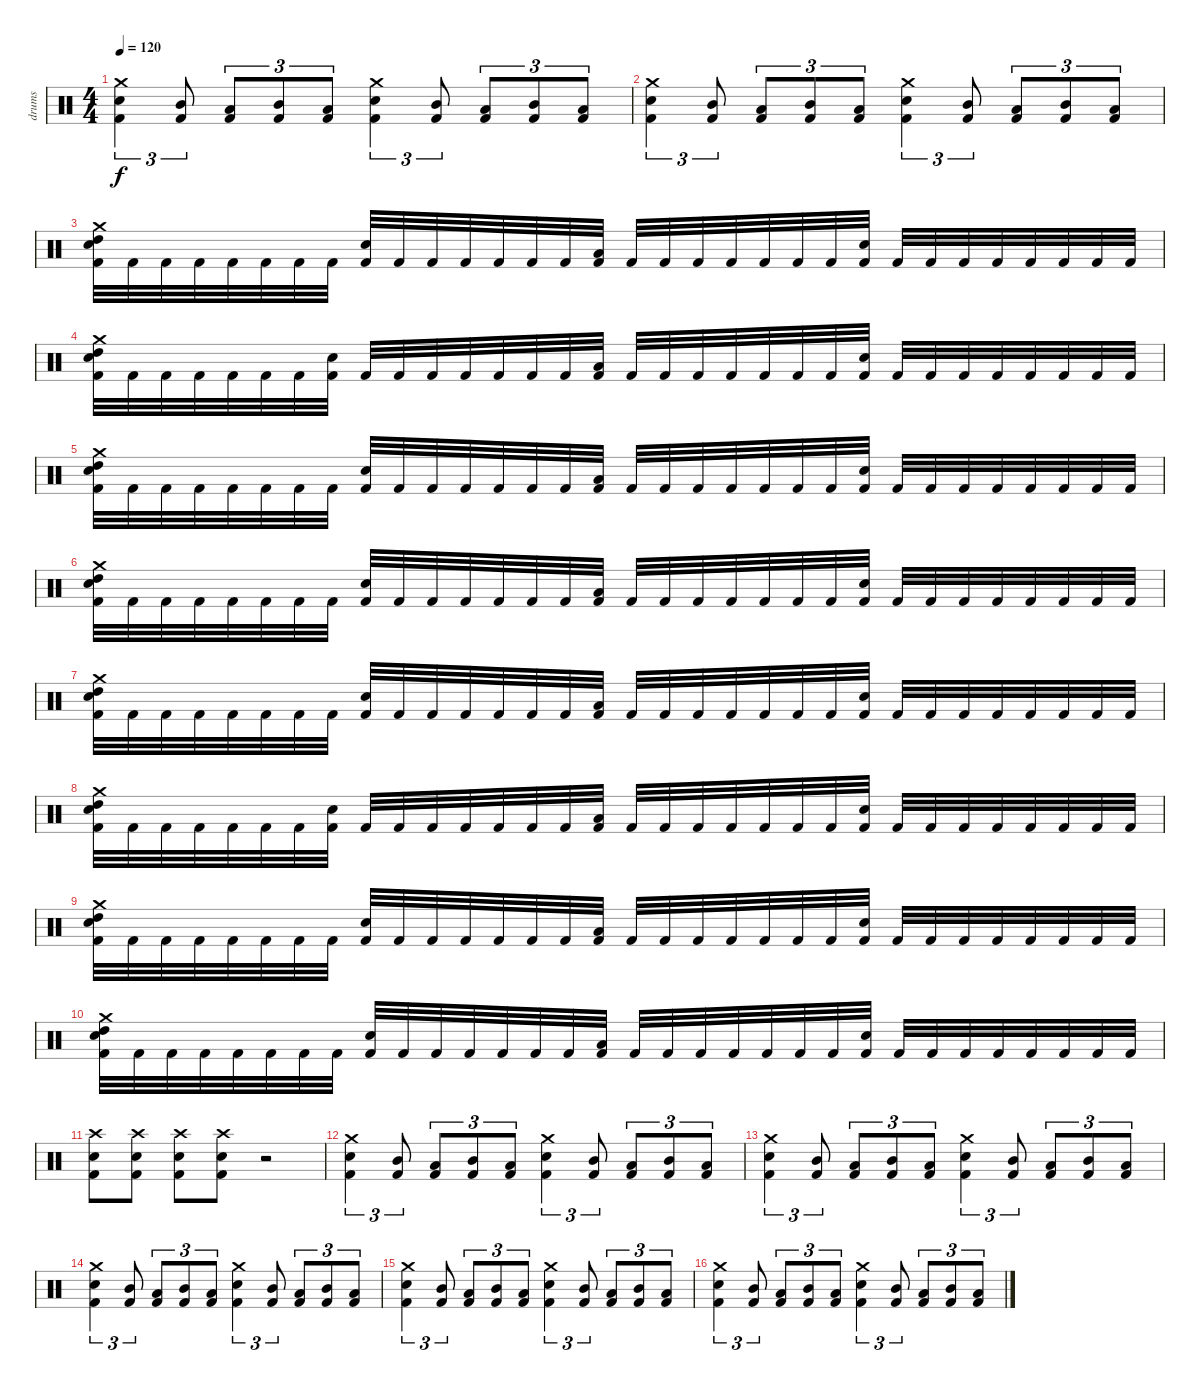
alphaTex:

\track ("drums" "drums") {instrument percussion}
\staff {score}
\articulation defaults
\ts (4 4)
\tempo 120
\clef neutral
\ks c
("Crash medium (hit)" "Electric Snare (hit)" "Kick (hit) 2").4{tu (3 2) dy f} ("Mid Tom (hit)" "Kick (hit) 2").8{tu (3 2)} ("Low Tom (hit)" "Kick (hit) 2").8{tu (3 2)} ("Mid Tom (hit)" "Kick (hit) 2").8{tu (3 2)} ("Low Tom (hit)" "Kick (hit) 2").8{tu (3 2)} ("Crash medium (hit)" "Electric Snare (hit)" "Kick (hit) 2").4{tu (3 2)} ("Mid Tom (hit)" "Kick (hit) 2").8{tu (3 2)} ("Low Tom (hit)" "Kick (hit) 2").8{tu (3 2)} ("Mid Tom (hit)" "Kick (hit) 2").8{tu (3 2)} ("Low Tom (hit)" "Kick (hit) 2").8{tu (3 2)} |
("Crash medium (hit)" "Electric Snare (hit)" "Kick (hit) 2").4{tu (3 2)} ("Mid Tom (hit)" "Kick (hit) 2").8{tu (3 2)} ("Low Tom (hit)" "Kick (hit) 2").8{tu (3 2)} ("Mid Tom (hit)" "Kick (hit) 2").8{tu (3 2)} ("Low Tom (hit)" "Kick (hit) 2").8{tu (3 2)} ("Crash medium (hit)" "Electric Snare (hit)" "Kick (hit) 2").4{tu (3 2)} ("Mid Tom (hit)" "Kick (hit) 2").8{tu (3 2)} ("Low Tom (hit)" "Kick (hit) 2").8{tu (3 2)} ("Mid Tom (hit)" "Kick (hit) 2").8{tu (3 2)} ("Low Tom (hit)" "Kick (hit) 2").8{tu (3 2)} |
("High Tom (hit)" "Electric Snare (hit)" "Crash medium (hit)" "Kick (hit) 2").32 "Kick (hit) 2".32 "Kick (hit) 2".32 "Kick (hit) 2".32 "Kick (hit) 2".32 "Kick (hit) 2".32 "Kick (hit) 2".32 "Kick (hit) 2".32 ("Electric Snare (hit)" "Kick (hit) 2").32 "Kick (hit) 2".32 "Kick (hit) 2".32 "Kick (hit) 2".32 "Kick (hit) 2".32 "Kick (hit) 2".32 "Kick (hit) 2".32 ("Low Floor Tom (hit)" "Kick (hit) 2").32 "Kick (hit) 2".32 "Kick (hit) 2".32 "Kick (hit) 2".32 "Kick (hit) 2".32 "Kick (hit) 2".32 "Kick (hit) 2".32 "Kick (hit) 2".32 ("Electric Snare (hit)" "Kick (hit) 2").32 "Kick (hit) 2".32 "Kick (hit) 2".32 "Kick (hit) 2".32 "Kick (hit) 2".32 "Kick (hit) 2".32 "Kick (hit) 2".32 "Kick (hit) 2".32 "Kick (hit) 2".32 |
("Crash medium (hit)" "Electric Snare (hit)" "High Tom (hit)" "Kick (hit) 2").32 "Kick (hit) 2".32 "Kick (hit) 2".32 "Kick (hit) 2".32 "Kick (hit) 2".32 "Kick (hit) 2".32 "Kick (hit) 2".32 ("Electric Snare (hit)" "Kick (hit) 2").32 "Kick (hit) 2".32 "Kick (hit) 2".32 "Kick (hit) 2".32 "Kick (hit) 2".32 "Kick (hit) 2".32 "Kick (hit) 2".32 "Kick (hit) 2".32 ("Low Floor Tom (hit)" "Kick (hit) 2").32 "Kick (hit) 2".32 "Kick (hit) 2".32 "Kick (hit) 2".32 "Kick (hit) 2".32 "Kick (hit) 2".32 "Kick (hit) 2".32 "Kick (hit) 2".32 ("Electric Snare (hit)" "Kick (hit) 2").32 "Kick (hit) 2".32 "Kick (hit) 2".32 "Kick (hit) 2".32 "Kick (hit) 2".32 "Kick (hit) 2".32 "Kick (hit) 2".32 "Kick (hit) 2".32 "Kick (hit) 2".32 |
("Crash medium (hit)" "Electric Snare (hit)" "High Tom (hit)" "Kick (hit) 2").32 "Kick (hit) 2".32 "Kick (hit) 2".32 "Kick (hit) 2".32 "Kick (hit) 2".32 "Kick (hit) 2".32 "Kick (hit) 2".32 "Kick (hit) 2".32 ("Electric Snare (hit)" "Kick (hit) 2").32 "Kick (hit) 2".32 "Kick (hit) 2".32 "Kick (hit) 2".32 "Kick (hit) 2".32 "Kick (hit) 2".32 "Kick (hit) 2".32 ("Low Floor Tom (hit)" "Kick (hit) 2").32 "Kick (hit) 2".32 "Kick (hit) 2".32 "Kick (hit) 2".32 "Kick (hit) 2".32 "Kick (hit) 2".32 "Kick (hit) 2".32 "Kick (hit) 2".32 ("Electric Snare (hit)" "Kick (hit) 2").32 "Kick (hit) 2".32 "Kick (hit) 2".32 "Kick (hit) 2".32 "Kick (hit) 2".32 "Kick (hit) 2".32 "Kick (hit) 2".32 "Kick (hit) 2".32 "Kick (hit) 2".32 |
("Crash medium (hit)" "Electric Snare (hit)" "High Tom (hit)" "Kick (hit) 2").32 "Kick (hit) 2".32 "Kick (hit) 2".32 "Kick (hit) 2".32 "Kick (hit) 2".32 "Kick (hit) 2".32 "Kick (hit) 2".32 "Kick (hit) 2".32 ("Electric Snare (hit)" "Kick (hit) 2").32 "Kick (hit) 2".32 "Kick (hit) 2".32 "Kick (hit) 2".32 "Kick (hit) 2".32 "Kick (hit) 2".32 "Kick (hit) 2".32 ("Low Floor Tom (hit)" "Kick (hit) 2").32 "Kick (hit) 2".32 "Kick (hit) 2".32 "Kick (hit) 2".32 "Kick (hit) 2".32 "Kick (hit) 2".32 "Kick (hit) 2".32 "Kick (hit) 2".32 ("Electric Snare (hit)" "Kick (hit) 2").32 "Kick (hit) 2".32 "Kick (hit) 2".32 "Kick (hit) 2".32 "Kick (hit) 2".32 "Kick (hit) 2".32 "Kick (hit) 2".32 "Kick (hit) 2".32 "Kick (hit) 2".32 |
("High Tom (hit)" "Electric Snare (hit)" "Crash medium (hit)" "Kick (hit) 2").32 "Kick (hit) 2".32 "Kick (hit) 2".32 "Kick (hit) 2".32 "Kick (hit) 2".32 "Kick (hit) 2".32 "Kick (hit) 2".32 "Kick (hit) 2".32 ("Electric Snare (hit)" "Kick (hit) 2").32 "Kick (hit) 2".32 "Kick (hit) 2".32 "Kick (hit) 2".32 "Kick (hit) 2".32 "Kick (hit) 2".32 "Kick (hit) 2".32 ("Low Floor Tom (hit)" "Kick (hit) 2").32 "Kick (hit) 2".32 "Kick (hit) 2".32 "Kick (hit) 2".32 "Kick (hit) 2".32 "Kick (hit) 2".32 "Kick (hit) 2".32 "Kick (hit) 2".32 ("Electric Snare (hit)" "Kick (hit) 2").32 "Kick (hit) 2".32 "Kick (hit) 2".32 "Kick (hit) 2".32 "Kick (hit) 2".32 "Kick (hit) 2".32 "Kick (hit) 2".32 "Kick (hit) 2".32 "Kick (hit) 2".32 |
("Crash medium (hit)" "Electric Snare (hit)" "High Tom (hit)" "Kick (hit) 2").32 "Kick (hit) 2".32 "Kick (hit) 2".32 "Kick (hit) 2".32 "Kick (hit) 2".32 "Kick (hit) 2".32 "Kick (hit) 2".32 ("Electric Snare (hit)" "Kick (hit) 2").32 "Kick (hit) 2".32 "Kick (hit) 2".32 "Kick (hit) 2".32 "Kick (hit) 2".32 "Kick (hit) 2".32 "Kick (hit) 2".32 "Kick (hit) 2".32 ("Low Floor Tom (hit)" "Kick (hit) 2").32 "Kick (hit) 2".32 "Kick (hit) 2".32 "Kick (hit) 2".32 "Kick (hit) 2".32 "Kick (hit) 2".32 "Kick (hit) 2".32 "Kick (hit) 2".32 ("Electric Snare (hit)" "Kick (hit) 2").32 "Kick (hit) 2".32 "Kick (hit) 2".32 "Kick (hit) 2".32 "Kick (hit) 2".32 "Kick (hit) 2".32 "Kick (hit) 2".32 "Kick (hit) 2".32 "Kick (hit) 2".32 |
("Crash medium (hit)" "Electric Snare (hit)" "High Tom (hit)" "Kick (hit) 2").32 "Kick (hit) 2".32 "Kick (hit) 2".32 "Kick (hit) 2".32 "Kick (hit) 2".32 "Kick (hit) 2".32 "Kick (hit) 2".32 "Kick (hit) 2".32 ("Electric Snare (hit)" "Kick (hit) 2").32 "Kick (hit) 2".32 "Kick (hit) 2".32 "Kick (hit) 2".32 "Kick (hit) 2".32 "Kick (hit) 2".32 "Kick (hit) 2".32 ("Low Floor Tom (hit)" "Kick (hit) 2").32 "Kick (hit) 2".32 "Kick (hit) 2".32 "Kick (hit) 2".32 "Kick (hit) 2".32 "Kick (hit) 2".32 "Kick (hit) 2".32 "Kick (hit) 2".32 ("Electric Snare (hit)" "Kick (hit) 2").32 "Kick (hit) 2".32 "Kick (hit) 2".32 "Kick (hit) 2".32 "Kick (hit) 2".32 "Kick (hit) 2".32 "Kick (hit) 2".32 "Kick (hit) 2".32 "Kick (hit) 2".32 |
("Crash medium (hit)" "Electric Snare (hit)" "High Tom (hit)" "Kick (hit) 2").32 "Kick (hit) 2".32 "Kick (hit) 2".32 "Kick (hit) 2".32 "Kick (hit) 2".32 "Kick (hit) 2".32 "Kick (hit) 2".32 "Kick (hit) 2".32 ("Electric Snare (hit)" "Kick (hit) 2").32 "Kick (hit) 2".32 "Kick (hit) 2".32 "Kick (hit) 2".32 "Kick (hit) 2".32 "Kick (hit) 2".32 "Kick (hit) 2".32 ("Low Floor Tom (hit)" "Kick (hit) 2").32 "Kick (hit) 2".32 "Kick (hit) 2".32 "Kick (hit) 2".32 "Kick (hit) 2".32 "Kick (hit) 2".32 "Kick (hit) 2".32 "Kick (hit) 2".32 ("Electric Snare (hit)" "Kick (hit) 2").32 "Kick (hit) 2".32 "Kick (hit) 2".32 "Kick (hit) 2".32 "Kick (hit) 2".32 "Kick (hit) 2".32 "Kick (hit) 2".32 "Kick (hit) 2".32 "Kick (hit) 2".32 |
("Crash high (hit)" "Electric Snare (hit)" "Kick (hit) 2").8 ("Crash high (hit)" "Electric Snare (hit)" "Kick (hit) 2").8 ("Crash high (hit)" "Electric Snare (hit)" "Kick (hit) 2").8 ("Crash high (hit)" "Electric Snare (hit)" "Kick (hit) 2").8 r.2 |
("Crash medium (hit)" "Electric Snare (hit)" "Kick (hit) 2").4{tu (3 2)} ("Mid Tom (hit)" "Kick (hit) 2").8{tu (3 2)} ("Low Tom (hit)" "Kick (hit) 2").8{tu (3 2)} ("Mid Tom (hit)" "Kick (hit) 2").8{tu (3 2)} ("Low Tom (hit)" "Kick (hit) 2").8{tu (3 2)} ("Crash medium (hit)" "Electric Snare (hit)" "Kick (hit) 2").4{tu (3 2)} ("Mid Tom (hit)" "Kick (hit) 2").8{tu (3 2)} ("Low Tom (hit)" "Kick (hit) 2").8{tu (3 2)} ("Mid Tom (hit)" "Kick (hit) 2").8{tu (3 2)} ("Low Tom (hit)" "Kick (hit) 2").8{tu (3 2)} |
("Crash medium (hit)" "Electric Snare (hit)" "Kick (hit) 2").4{tu (3 2)} ("Mid Tom (hit)" "Kick (hit) 2").8{tu (3 2)} ("Low Tom (hit)" "Kick (hit) 2").8{tu (3 2)} ("Mid Tom (hit)" "Kick (hit) 2").8{tu (3 2)} ("Low Tom (hit)" "Kick (hit) 2").8{tu (3 2)} ("Crash medium (hit)" "Electric Snare (hit)" "Kick (hit) 2").4{tu (3 2)} ("Mid Tom (hit)" "Kick (hit) 2").8{tu (3 2)} ("Low Tom (hit)" "Kick (hit) 2").8{tu (3 2)} ("Mid Tom (hit)" "Kick (hit) 2").8{tu (3 2)} ("Low Tom (hit)" "Kick (hit) 2").8{tu (3 2)} |
("Crash medium (hit)" "Electric Snare (hit)" "Kick (hit) 2").4{tu (3 2)} ("Mid Tom (hit)" "Kick (hit) 2").8{tu (3 2)} ("Low Tom (hit)" "Kick (hit) 2").8{tu (3 2)} ("Mid Tom (hit)" "Kick (hit) 2").8{tu (3 2)} ("Low Tom (hit)" "Kick (hit) 2").8{tu (3 2)} ("Crash medium (hit)" "Electric Snare (hit)" "Kick (hit) 2").4{tu (3 2)} ("Mid Tom (hit)" "Kick (hit) 2").8{tu (3 2)} ("Low Tom (hit)" "Kick (hit) 2").8{tu (3 2)} ("Mid Tom (hit)" "Kick (hit) 2").8{tu (3 2)} ("Low Tom (hit)" "Kick (hit) 2").8{tu (3 2)} |
("Crash medium (hit)" "Electric Snare (hit)" "Kick (hit) 2").4{tu (3 2)} ("Mid Tom (hit)" "Kick (hit) 2").8{tu (3 2)} ("Low Tom (hit)" "Kick (hit) 2").8{tu (3 2)} ("Mid Tom (hit)" "Kick (hit) 2").8{tu (3 2)} ("Low Tom (hit)" "Kick (hit) 2").8{tu (3 2)} ("Crash medium (hit)" "Electric Snare (hit)" "Kick (hit) 2").4{tu (3 2)} ("Mid Tom (hit)" "Kick (hit) 2").8{tu (3 2)} ("Low Tom (hit)" "Kick (hit) 2").8{tu (3 2)} ("Mid Tom (hit)" "Kick (hit) 2").8{tu (3 2)} ("Low Tom (hit)" "Kick (hit) 2").8{tu (3 2)} |
("Crash medium (hit)" "Electric Snare (hit)" "Kick (hit) 2").4{tu (3 2)} ("Mid Tom (hit)" "Kick (hit) 2").8{tu (3 2)} ("Low Tom (hit)" "Kick (hit) 2").8{tu (3 2)} ("Mid Tom (hit)" "Kick (hit) 2").8{tu (3 2)} ("Low Tom (hit)" "Kick (hit) 2").8{tu (3 2)} ("Crash medium (hit)" "Electric Snare (hit)" "Kick (hit) 2").4{tu (3 2)} ("Mid Tom (hit)" "Kick (hit) 2").8{tu (3 2)} ("Low Tom (hit)" "Kick (hit) 2").8{tu (3 2)} ("Mid Tom (hit)" "Kick (hit) 2").8{tu (3 2)} ("Low Tom (hit)" "Kick (hit) 2").8{tu (3 2)}
